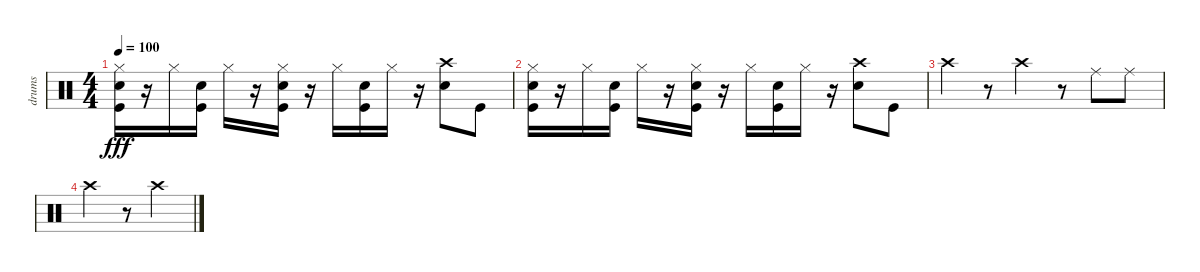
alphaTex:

\track ("drums" "drums") {instrument percussion}
\staff {score}
\articulation defaults
\ts (4 4)
\tempo 100
\clef neutral
\ks c
("Hi-Hat (closed)" "Snare (hit) 2" "Kick (hit)").16{dy fff} r.16 "Hi-Hat (closed)".16 ("Snare (hit) 2" "Kick (hit)").16 "Hi-Hat (closed)".16 r.16 ("Hi-Hat (closed)" "Snare (hit) 2" "Kick (hit)").16 r.16 "Hi-Hat (closed)".16 ("Snare (hit) 2" "Kick (hit)").16 "Hi-Hat (closed)".16 r.16 ("Crash high (hit)" "Snare (hit) 2").8 "Kick (hit)".8 |
("Hi-Hat (closed)" "Snare (hit) 2" "Kick (hit)").16 r.16 "Hi-Hat (closed)".16 ("Snare (hit) 2" "Kick (hit)").16 "Hi-Hat (closed)".16 r.16 ("Hi-Hat (closed)" "Snare (hit) 2" "Kick (hit)").16 r.16 "Hi-Hat (closed)".16 ("Snare (hit) 2" "Kick (hit)").16 "Hi-Hat (closed)".16 r.16 ("Crash high (hit)" "Snare (hit) 2").8 "Kick (hit)".8 |
"Crash high (hit)".4 r.8 "Crash high (hit)".4 r.8 "Ride (middle)".8 "Ride (middle)".8 |
"Crash high (hit)".4 r.8 "Crash high (hit)".4
